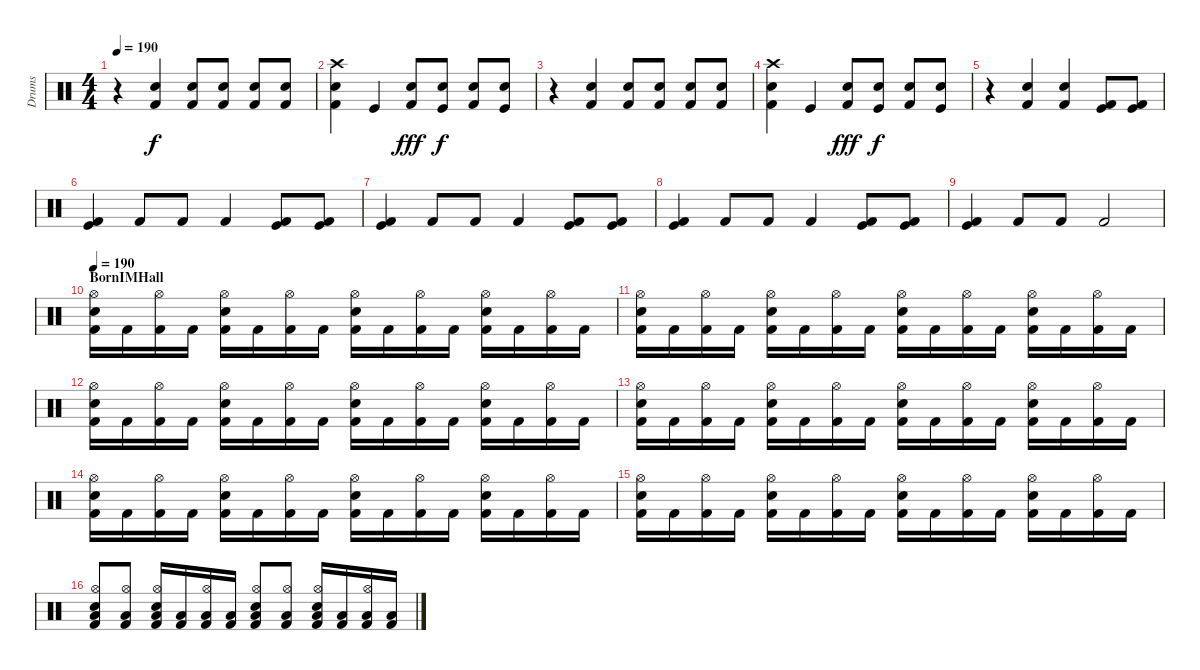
\track ("Drums" "Drums") {instrument percussion}
\staff {score}
\articulation defaults
\ts (4 4)
\tempo 190
\clef neutral
\ks c
r.4{dy f} ("Kick (hit) 2" "Electric Snare (hit)").4 ("Kick (hit) 2" "Electric Snare (hit)").8 ("Kick (hit) 2" "Snare (hit) 2").8 ("Kick (hit) 2" "Electric Snare (hit)").8 ("Kick (hit) 2" "Snare (hit) 2").8 |
("Snare (hit) 2" "Crash high (hit)" "Kick (hit) 2").4 "Kick (hit)".4 ("Kick (hit) 2" "Snare (hit) 2").8{dy fff} ("Kick (hit)" "Electric Snare (hit)").8{dy f} ("Kick (hit) 2" "Snare (hit) 2").8 ("Kick (hit)" "Electric Snare (hit)").8 |
r.4 ("Kick (hit) 2" "Electric Snare (hit)").4 ("Kick (hit) 2" "Electric Snare (hit)").8 ("Kick (hit) 2" "Snare (hit) 2").8 ("Kick (hit) 2" "Electric Snare (hit)").8 ("Kick (hit) 2" "Snare (hit) 2").8 |
("Snare (hit) 2" "Crash high (hit)" "Kick (hit) 2").4 "Kick (hit)".4 ("Kick (hit) 2" "Snare (hit) 2").8{dy fff} ("Kick (hit)" "Electric Snare (hit)").8{dy f} ("Kick (hit) 2" "Snare (hit) 2").8 ("Kick (hit)" "Electric Snare (hit)").8 |
r.4 ("Kick (hit) 2" "Electric Snare (hit)").4 ("Kick (hit) 2" "Snare (hit) 2").4 ("Kick (hit) 2" "Kick (hit)").8 ("Kick (hit) 2" "Kick (hit)").8 |
("Kick (hit) 2" "Kick (hit)").4 "Kick (hit) 2".8 "Kick (hit) 2".8 "Kick (hit) 2".4 ("Kick (hit) 2" "Kick (hit)").8 ("Kick (hit) 2" "Kick (hit)").8 |
("Kick (hit) 2" "Kick (hit)").4 "Kick (hit) 2".8 "Kick (hit) 2".8 "Kick (hit) 2".4 ("Kick (hit) 2" "Kick (hit)").8 ("Kick (hit) 2" "Kick (hit)").8 |
("Kick (hit) 2" "Kick (hit)").4 "Kick (hit) 2".8 "Kick (hit) 2".8 "Kick (hit) 2".4 ("Kick (hit) 2" "Kick (hit)").8 ("Kick (hit) 2" "Kick (hit)").8 |
("Kick (hit) 2" "Kick (hit)").4 "Kick (hit) 2".8 "Kick (hit) 2".8 "Kick (hit) 2".2 |
\section ("" "BornIMHall")
\tempo 190
("Hi-Hat (open)" "Electric Snare (hit)" "Kick (hit) 2").16 "Kick (hit) 2".16 ("Hi-Hat (open)" "Kick (hit) 2").16 "Kick (hit) 2".16 ("Hi-Hat (open)" "Electric Snare (hit)" "Kick (hit) 2").16 "Kick (hit) 2".16 ("Hi-Hat (open)" "Kick (hit) 2").16 "Kick (hit) 2".16 ("Hi-Hat (open)" "Electric Snare (hit)" "Kick (hit) 2").16 "Kick (hit) 2".16 ("Hi-Hat (open)" "Kick (hit) 2").16 "Kick (hit) 2".16 ("Hi-Hat (open)" "Electric Snare (hit)" "Kick (hit) 2").16 "Kick (hit) 2".16 ("Hi-Hat (open)" "Kick (hit) 2").16 "Kick (hit) 2".16 |
("Hi-Hat (open)" "Electric Snare (hit)" "Kick (hit) 2").16 "Kick (hit) 2".16 ("Hi-Hat (open)" "Kick (hit) 2").16 "Kick (hit) 2".16 ("Hi-Hat (open)" "Electric Snare (hit)" "Kick (hit) 2").16 "Kick (hit) 2".16 ("Hi-Hat (open)" "Kick (hit) 2").16 "Kick (hit) 2".16 ("Hi-Hat (open)" "Electric Snare (hit)" "Kick (hit) 2").16 "Kick (hit) 2".16 ("Hi-Hat (open)" "Kick (hit) 2").16 "Kick (hit) 2".16 ("Hi-Hat (open)" "Electric Snare (hit)" "Kick (hit) 2").16 "Kick (hit) 2".16 ("Hi-Hat (open)" "Kick (hit) 2").16 "Kick (hit) 2".16 |
("Hi-Hat (open)" "Electric Snare (hit)" "Kick (hit) 2").16 "Kick (hit) 2".16 ("Hi-Hat (open)" "Kick (hit) 2").16 "Kick (hit) 2".16 ("Hi-Hat (open)" "Electric Snare (hit)" "Kick (hit) 2").16 "Kick (hit) 2".16 ("Hi-Hat (open)" "Kick (hit) 2").16 "Kick (hit) 2".16 ("Hi-Hat (open)" "Electric Snare (hit)" "Kick (hit) 2").16 "Kick (hit) 2".16 ("Hi-Hat (open)" "Kick (hit) 2").16 "Kick (hit) 2".16 ("Hi-Hat (open)" "Electric Snare (hit)" "Kick (hit) 2").16 "Kick (hit) 2".16 ("Hi-Hat (open)" "Kick (hit) 2").16 "Kick (hit) 2".16 |
("Hi-Hat (open)" "Electric Snare (hit)" "Kick (hit) 2").16 "Kick (hit) 2".16 ("Hi-Hat (open)" "Kick (hit) 2").16 "Kick (hit) 2".16 ("Hi-Hat (open)" "Electric Snare (hit)" "Kick (hit) 2").16 "Kick (hit) 2".16 ("Hi-Hat (open)" "Kick (hit) 2").16 "Kick (hit) 2".16 ("Hi-Hat (open)" "Electric Snare (hit)" "Kick (hit) 2").16 "Kick (hit) 2".16 ("Hi-Hat (open)" "Kick (hit) 2").16 "Kick (hit) 2".16 ("Hi-Hat (open)" "Electric Snare (hit)" "Kick (hit) 2").16 "Kick (hit) 2".16 ("Hi-Hat (open)" "Kick (hit) 2").16 "Kick (hit) 2".16 |
("Hi-Hat (open)" "Electric Snare (hit)" "Kick (hit) 2").16 "Kick (hit) 2".16 ("Hi-Hat (open)" "Kick (hit) 2").16 "Kick (hit) 2".16 ("Hi-Hat (open)" "Electric Snare (hit)" "Kick (hit) 2").16 "Kick (hit) 2".16 ("Hi-Hat (open)" "Kick (hit) 2").16 "Kick (hit) 2".16 ("Hi-Hat (open)" "Electric Snare (hit)" "Kick (hit) 2").16 "Kick (hit) 2".16 ("Hi-Hat (open)" "Kick (hit) 2").16 "Kick (hit) 2".16 ("Hi-Hat (open)" "Electric Snare (hit)" "Kick (hit) 2").16 "Kick (hit) 2".16 ("Hi-Hat (open)" "Kick (hit) 2").16 "Kick (hit) 2".16 |
("Hi-Hat (open)" "Electric Snare (hit)" "Kick (hit) 2").16 "Kick (hit) 2".16 ("Hi-Hat (open)" "Kick (hit) 2").16 "Kick (hit) 2".16 ("Hi-Hat (open)" "Electric Snare (hit)" "Kick (hit) 2").16 "Kick (hit) 2".16 ("Hi-Hat (open)" "Kick (hit) 2").16 "Kick (hit) 2".16 ("Hi-Hat (open)" "Electric Snare (hit)" "Kick (hit) 2").16 "Kick (hit) 2".16 ("Hi-Hat (open)" "Kick (hit) 2").16 "Kick (hit) 2".16 ("Hi-Hat (open)" "Electric Snare (hit)" "Kick (hit) 2").16 "Kick (hit) 2".16 ("Hi-Hat (open)" "Kick (hit) 2").16 "Kick (hit) 2".16 |
("Hi-Hat (open)" "Low Floor Tom (hit)" "Electric Snare (hit)" "Kick (hit) 2").8 ("Hi-Hat (open)" "Low Floor Tom (hit)" "Kick (hit) 2").8 ("Hi-Hat (open)" "Low Floor Tom (hit)" "Electric Snare (hit)" "Kick (hit) 2").16 ("Low Floor Tom (hit)" "Kick (hit) 2").16 ("Hi-Hat (open)" "Low Floor Tom (hit)" "Kick (hit) 2").16 ("Low Floor Tom (hit)" "Kick (hit) 2").16 ("Hi-Hat (open)" "Low Floor Tom (hit)" "Electric Snare (hit)" "Kick (hit) 2").8 ("Hi-Hat (open)" "Low Floor Tom (hit)" "Kick (hit) 2").8 ("Hi-Hat (open)" "Low Floor Tom (hit)" "Electric Snare (hit)" "Kick (hit) 2").16 ("Low Floor Tom (hit)" "Kick (hit) 2").16 ("Hi-Hat (open)" "Low Floor Tom (hit)" "Kick (hit) 2").16 ("Low Floor Tom (hit)" "Kick (hit) 2").16
